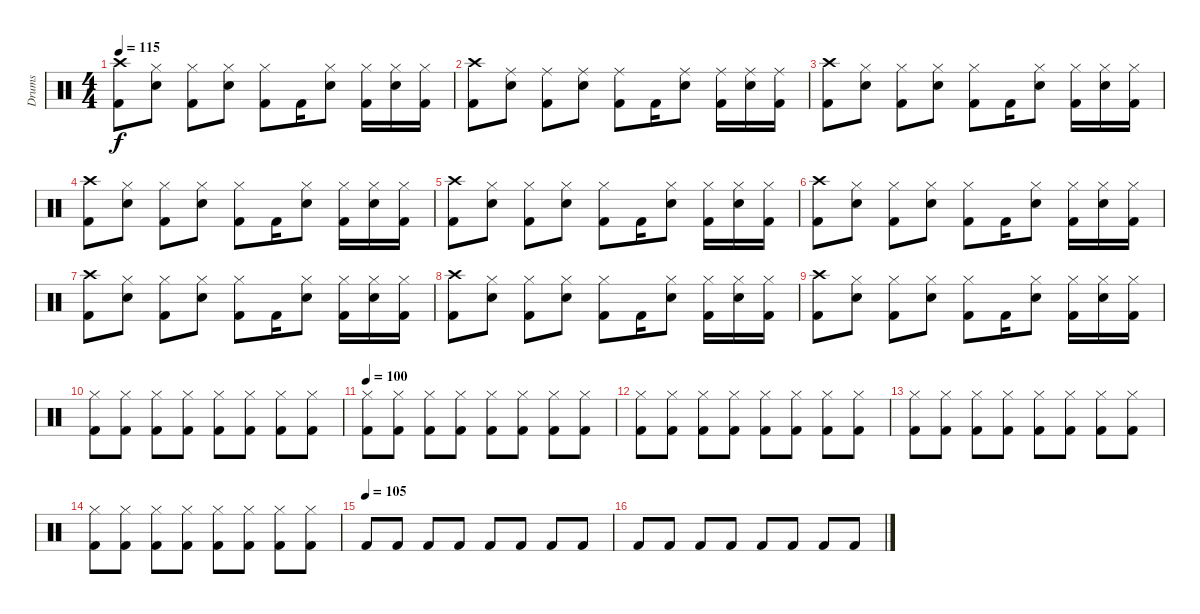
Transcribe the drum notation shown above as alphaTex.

\track ("Drums" "Drums") {instrument percussion}
\staff {score}
\articulation defaults
\ts (4 4)
\tempo 115
\clef neutral
\ks c
("Crash high (hit)" "Kick (hit) 2").8{dy f} ("Hi-Hat (closed)" "Electric Snare (hit)").8 ("Hi-Hat (closed)" "Kick (hit) 2").8 ("Hi-Hat (closed)" "Electric Snare (hit)").8 ("Hi-Hat (closed)" "Kick (hit) 2").8 "Kick (hit) 2".16 ("Hi-Hat (closed)" "Electric Snare (hit)").8 ("Hi-Hat (closed)" "Kick (hit) 2").16 ("Hi-Hat (closed)" "Electric Snare (hit)").16 ("Hi-Hat (closed)" "Kick (hit) 2").16 |
("Crash high (hit)" "Kick (hit) 2").8 ("Ride (middle)" "Electric Snare (hit)").8 ("Ride (middle)" "Kick (hit) 2").8 ("Ride (middle)" "Electric Snare (hit)").8 ("Ride (middle)" "Kick (hit) 2").8 "Kick (hit) 2".16 ("Ride (middle)" "Electric Snare (hit)").8 ("Ride (middle)" "Kick (hit) 2").16 ("Ride (middle)" "Electric Snare (hit)").16 ("Ride (middle)" "Kick (hit) 2").16 |
("Crash high (hit)" "Kick (hit) 2").8 ("Hi-Hat (closed)" "Electric Snare (hit)").8 ("Hi-Hat (closed)" "Kick (hit) 2").8 ("Hi-Hat (closed)" "Electric Snare (hit)").8 ("Hi-Hat (closed)" "Kick (hit) 2").8 "Kick (hit) 2".16 ("Hi-Hat (closed)" "Electric Snare (hit)").8 ("Hi-Hat (closed)" "Kick (hit) 2").16 ("Hi-Hat (closed)" "Electric Snare (hit)").16 ("Hi-Hat (closed)" "Kick (hit) 2").16 |
("Crash high (hit)" "Kick (hit) 2").8 ("Hi-Hat (closed)" "Electric Snare (hit)").8 ("Hi-Hat (closed)" "Kick (hit) 2").8 ("Hi-Hat (closed)" "Electric Snare (hit)").8 ("Hi-Hat (closed)" "Kick (hit) 2").8 "Kick (hit) 2".16 ("Hi-Hat (closed)" "Electric Snare (hit)").8 ("Hi-Hat (closed)" "Kick (hit) 2").16 ("Hi-Hat (closed)" "Electric Snare (hit)").16 ("Hi-Hat (closed)" "Kick (hit) 2").16 |
("Crash high (hit)" "Kick (hit) 2").8 ("Hi-Hat (closed)" "Electric Snare (hit)").8 ("Hi-Hat (closed)" "Kick (hit) 2").8 ("Hi-Hat (closed)" "Electric Snare (hit)").8 ("Hi-Hat (closed)" "Kick (hit) 2").8 "Kick (hit) 2".16 ("Hi-Hat (closed)" "Electric Snare (hit)").8 ("Hi-Hat (closed)" "Kick (hit) 2").16 ("Hi-Hat (closed)" "Electric Snare (hit)").16 ("Hi-Hat (closed)" "Kick (hit) 2").16 |
("Crash high (hit)" "Kick (hit) 2").8 ("Hi-Hat (closed)" "Electric Snare (hit)").8 ("Hi-Hat (closed)" "Kick (hit) 2").8 ("Hi-Hat (closed)" "Electric Snare (hit)").8 ("Hi-Hat (closed)" "Kick (hit) 2").8 "Kick (hit) 2".16 ("Hi-Hat (closed)" "Electric Snare (hit)").8 ("Hi-Hat (closed)" "Kick (hit) 2").16 ("Hi-Hat (closed)" "Electric Snare (hit)").16 ("Hi-Hat (closed)" "Kick (hit) 2").16 |
("Crash high (hit)" "Kick (hit) 2").8 ("Hi-Hat (closed)" "Electric Snare (hit)").8 ("Hi-Hat (closed)" "Kick (hit) 2").8 ("Hi-Hat (closed)" "Electric Snare (hit)").8 ("Hi-Hat (closed)" "Kick (hit) 2").8 "Kick (hit) 2".16 ("Hi-Hat (closed)" "Electric Snare (hit)").8 ("Hi-Hat (closed)" "Kick (hit) 2").16 ("Hi-Hat (closed)" "Electric Snare (hit)").16 ("Hi-Hat (closed)" "Kick (hit) 2").16 |
("Crash high (hit)" "Kick (hit) 2").8 ("Hi-Hat (closed)" "Electric Snare (hit)").8 ("Hi-Hat (closed)" "Kick (hit) 2").8 ("Hi-Hat (closed)" "Electric Snare (hit)").8 ("Hi-Hat (closed)" "Kick (hit) 2").8 "Kick (hit) 2".16 ("Hi-Hat (closed)" "Electric Snare (hit)").8 ("Hi-Hat (closed)" "Kick (hit) 2").16 ("Hi-Hat (closed)" "Electric Snare (hit)").16 ("Hi-Hat (closed)" "Kick (hit) 2").16 |
("Crash high (hit)" "Kick (hit) 2").8 ("Hi-Hat (closed)" "Electric Snare (hit)").8 ("Hi-Hat (closed)" "Kick (hit) 2").8 ("Hi-Hat (closed)" "Electric Snare (hit)").8 ("Hi-Hat (closed)" "Kick (hit) 2").8 "Kick (hit) 2".16 ("Hi-Hat (closed)" "Electric Snare (hit)").8 ("Hi-Hat (closed)" "Kick (hit) 2").16 ("Hi-Hat (closed)" "Electric Snare (hit)").16 ("Hi-Hat (closed)" "Kick (hit) 2").16 |
("Hi-Hat (closed)" "Kick (hit) 2").8 ("Hi-Hat (closed)" "Kick (hit) 2").8 ("Hi-Hat (closed)" "Kick (hit) 2").8 ("Hi-Hat (closed)" "Kick (hit) 2").8 ("Hi-Hat (closed)" "Kick (hit) 2").8 ("Hi-Hat (closed)" "Kick (hit) 2").8 ("Hi-Hat (closed)" "Kick (hit) 2").8 ("Hi-Hat (closed)" "Kick (hit) 2").8 |
\tempo 100
("Hi-Hat (closed)" "Kick (hit) 2").8 ("Hi-Hat (closed)" "Kick (hit) 2").8 ("Hi-Hat (closed)" "Kick (hit) 2").8 ("Hi-Hat (closed)" "Kick (hit) 2").8 ("Hi-Hat (closed)" "Kick (hit) 2").8 ("Hi-Hat (closed)" "Kick (hit) 2").8 ("Hi-Hat (closed)" "Kick (hit) 2").8 ("Hi-Hat (closed)" "Kick (hit) 2").8 |
("Hi-Hat (closed)" "Kick (hit) 2").8 ("Hi-Hat (closed)" "Kick (hit) 2").8 ("Hi-Hat (closed)" "Kick (hit) 2").8 ("Hi-Hat (closed)" "Kick (hit) 2").8 ("Hi-Hat (closed)" "Kick (hit) 2").8 ("Hi-Hat (closed)" "Kick (hit) 2").8 ("Hi-Hat (closed)" "Kick (hit) 2").8 ("Hi-Hat (closed)" "Kick (hit) 2").8 |
("Hi-Hat (closed)" "Kick (hit) 2").8 ("Hi-Hat (closed)" "Kick (hit) 2").8 ("Hi-Hat (closed)" "Kick (hit) 2").8 ("Hi-Hat (closed)" "Kick (hit) 2").8 ("Hi-Hat (closed)" "Kick (hit) 2").8 ("Hi-Hat (closed)" "Kick (hit) 2").8 ("Hi-Hat (closed)" "Kick (hit) 2").8 ("Hi-Hat (closed)" "Kick (hit) 2").8 |
("Hi-Hat (closed)" "Kick (hit) 2").8 ("Hi-Hat (closed)" "Kick (hit) 2").8 ("Hi-Hat (closed)" "Kick (hit) 2").8 ("Hi-Hat (closed)" "Kick (hit) 2").8 ("Hi-Hat (closed)" "Kick (hit) 2").8 ("Hi-Hat (closed)" "Kick (hit) 2").8 ("Hi-Hat (closed)" "Kick (hit) 2").8 ("Hi-Hat (closed)" "Kick (hit) 2").8 |
\tempo (105)
"Kick (hit) 2".8 "Kick (hit) 2".8 "Kick (hit) 2".8 "Kick (hit) 2".8 "Kick (hit) 2".8 "Kick (hit) 2".8 "Kick (hit) 2".8 "Kick (hit) 2".8 |
"Kick (hit) 2".8 "Kick (hit) 2".8 "Kick (hit) 2".8 "Kick (hit) 2".8 "Kick (hit) 2".8 "Kick (hit) 2".8 "Kick (hit) 2".8 "Kick (hit) 2".8
